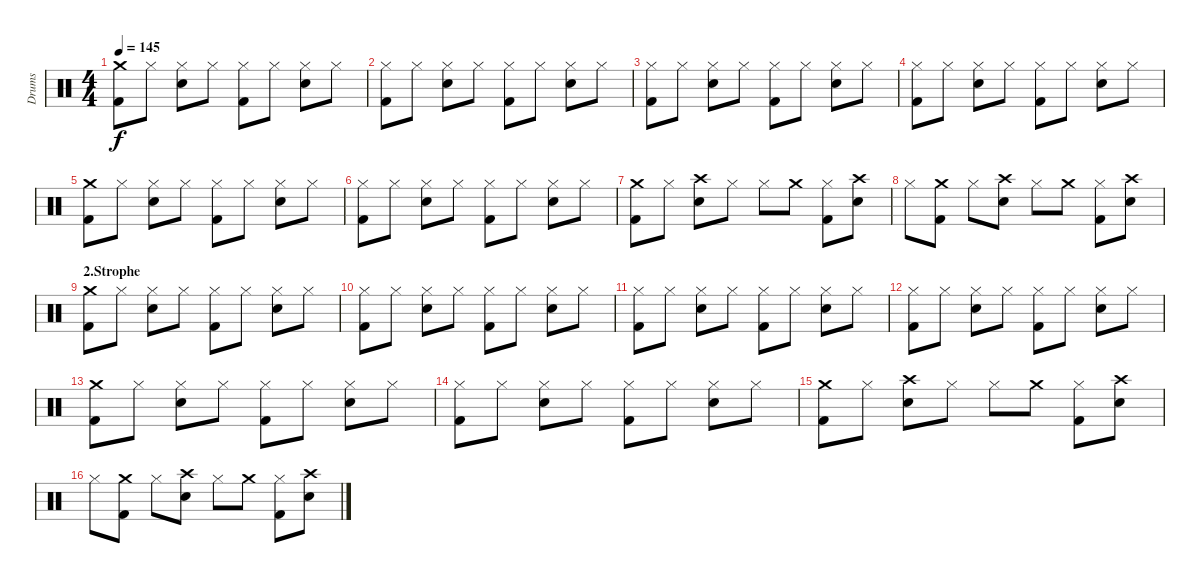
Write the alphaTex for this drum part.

\track ("Drums" "Drums") {instrument percussion}
\staff {score}
\articulation defaults
\ts (4 4)
\tempo 145
\clef neutral
\ks c
("Crash medium (hit)" "Kick (hit) 2").8{dy f volume 13} "Hi-Hat (closed)".8 ("Hi-Hat (closed)" "Snare (hit) 2").8 "Hi-Hat (closed)".8 ("Hi-Hat (closed)" "Kick (hit) 2").8 "Hi-Hat (closed)".8 ("Hi-Hat (closed)" "Snare (hit) 2").8 "Hi-Hat (closed)".8 |
("Hi-Hat (closed)" "Kick (hit) 2").8 "Hi-Hat (closed)".8 ("Hi-Hat (closed)" "Snare (hit) 2").8 "Hi-Hat (closed)".8 ("Hi-Hat (closed)" "Kick (hit) 2").8 "Hi-Hat (closed)".8 ("Hi-Hat (closed)" "Snare (hit) 2").8 "Hi-Hat (closed)".8 |
("Hi-Hat (closed)" "Kick (hit) 2").8 "Hi-Hat (closed)".8 ("Hi-Hat (closed)" "Snare (hit) 2").8 "Hi-Hat (closed)".8 ("Hi-Hat (closed)" "Kick (hit) 2").8 "Hi-Hat (closed)".8 ("Hi-Hat (closed)" "Snare (hit) 2").8 "Hi-Hat (closed)".8 |
("Hi-Hat (closed)" "Kick (hit) 2").8 "Hi-Hat (closed)".8 ("Hi-Hat (closed)" "Snare (hit) 2").8 "Hi-Hat (closed)".8 ("Hi-Hat (closed)" "Kick (hit) 2").8 "Hi-Hat (closed)".8 ("Hi-Hat (closed)" "Snare (hit) 2").8 "Hi-Hat (closed)".8 |
("Crash medium (hit)" "Kick (hit) 2").8 "Hi-Hat (closed)".8 ("Hi-Hat (closed)" "Snare (hit) 2").8 "Hi-Hat (closed)".8 ("Hi-Hat (closed)" "Kick (hit) 2").8 "Hi-Hat (closed)".8 ("Hi-Hat (closed)" "Snare (hit) 2").8 "Hi-Hat (closed)".8 |
("Hi-Hat (closed)" "Kick (hit) 2").8 "Hi-Hat (closed)".8 ("Hi-Hat (closed)" "Snare (hit) 2").8 "Hi-Hat (closed)".8 ("Hi-Hat (closed)" "Kick (hit) 2").8 "Hi-Hat (closed)".8 ("Hi-Hat (closed)" "Snare (hit) 2").8 "Hi-Hat (closed)".8 |
("Crash medium (hit)" "Kick (hit) 2").8 "Hi-Hat (closed)".8 ("Crash high (hit)" "Snare (hit) 2").8 "Hi-Hat (closed)".8 "Hi-Hat (closed)".8 "Crash medium (hit)".8 ("Hi-Hat (closed)" "Kick (hit) 2").8 ("Crash high (hit)" "Snare (hit) 2").8 |
"Hi-Hat (closed)".8 ("Crash medium (hit)" "Kick (hit) 2").8 "Hi-Hat (closed)".8 ("Crash high (hit)" "Snare (hit) 2").8 "Hi-Hat (closed)".8 "Crash medium (hit)".8 ("Hi-Hat (closed)" "Kick (hit) 2").8 ("Crash high (hit)" "Snare (hit) 2").8 |
\section ("" "2.Strophe")
("Crash medium (hit)" "Kick (hit) 2").8{volume 13} "Hi-Hat (closed)".8 ("Hi-Hat (closed)" "Snare (hit) 2").8 "Hi-Hat (closed)".8 ("Hi-Hat (closed)" "Kick (hit) 2").8 "Hi-Hat (closed)".8 ("Hi-Hat (closed)" "Snare (hit) 2").8 "Hi-Hat (closed)".8 |
("Hi-Hat (closed)" "Kick (hit) 2").8 "Hi-Hat (closed)".8 ("Hi-Hat (closed)" "Snare (hit) 2").8 "Hi-Hat (closed)".8 ("Hi-Hat (closed)" "Kick (hit) 2").8 "Hi-Hat (closed)".8 ("Hi-Hat (closed)" "Snare (hit) 2").8 "Hi-Hat (closed)".8 |
("Hi-Hat (closed)" "Kick (hit) 2").8 "Hi-Hat (closed)".8 ("Hi-Hat (closed)" "Snare (hit) 2").8 "Hi-Hat (closed)".8 ("Hi-Hat (closed)" "Kick (hit) 2").8 "Hi-Hat (closed)".8 ("Hi-Hat (closed)" "Snare (hit) 2").8 "Hi-Hat (closed)".8 |
("Hi-Hat (closed)" "Kick (hit) 2").8 "Hi-Hat (closed)".8 ("Hi-Hat (closed)" "Snare (hit) 2").8 "Hi-Hat (closed)".8 ("Hi-Hat (closed)" "Kick (hit) 2").8 "Hi-Hat (closed)".8 ("Hi-Hat (closed)" "Snare (hit) 2").8 "Hi-Hat (closed)".8 |
("Crash medium (hit)" "Kick (hit) 2").8 "Hi-Hat (closed)".8 ("Hi-Hat (closed)" "Snare (hit) 2").8 "Hi-Hat (closed)".8 ("Hi-Hat (closed)" "Kick (hit) 2").8 "Hi-Hat (closed)".8 ("Hi-Hat (closed)" "Snare (hit) 2").8 "Hi-Hat (closed)".8 |
("Hi-Hat (closed)" "Kick (hit) 2").8 "Hi-Hat (closed)".8 ("Hi-Hat (closed)" "Snare (hit) 2").8 "Hi-Hat (closed)".8 ("Hi-Hat (closed)" "Kick (hit) 2").8 "Hi-Hat (closed)".8 ("Hi-Hat (closed)" "Snare (hit) 2").8 "Hi-Hat (closed)".8 |
("Crash medium (hit)" "Kick (hit) 2").8 "Hi-Hat (closed)".8 ("Crash high (hit)" "Snare (hit) 2").8 "Hi-Hat (closed)".8 "Hi-Hat (closed)".8 "Crash medium (hit)".8 ("Hi-Hat (closed)" "Kick (hit) 2").8 ("Crash high (hit)" "Snare (hit) 2").8 |
"Hi-Hat (closed)".8 ("Crash medium (hit)" "Kick (hit) 2").8 "Hi-Hat (closed)".8 ("Crash high (hit)" "Snare (hit) 2").8 "Hi-Hat (closed)".8 "Crash medium (hit)".8 ("Hi-Hat (closed)" "Kick (hit) 2").8 ("Crash high (hit)" "Snare (hit) 2").8
